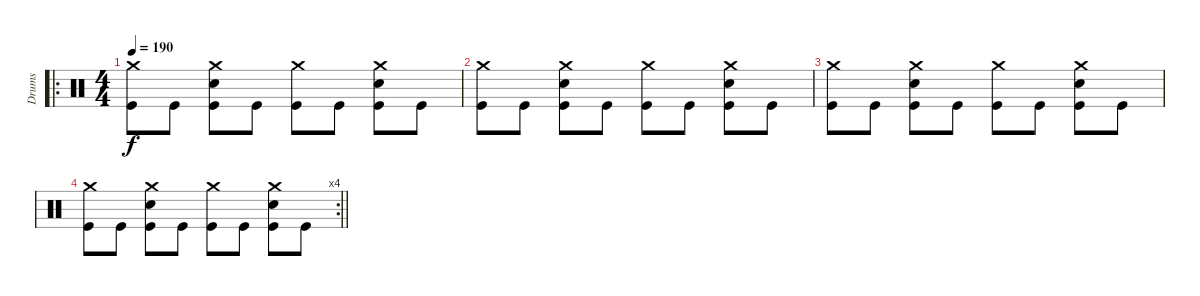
\track ("Drums" "Drums") {instrument percussion}
\staff {score}
\articulation defaults
\ro
\ts (4 4)
\tempo 190
\clef neutral
\ks c
("Crash medium (hit)" "Kick (hit)").8{dy f} "Kick (hit)".8 ("Crash medium (hit)" "Snare (hit) 2" "Kick (hit)").8 "Kick (hit)".8 ("Crash medium (hit)" "Kick (hit)").8 "Kick (hit)".8 ("Crash medium (hit)" "Snare (hit) 2" "Kick (hit)").8 "Kick (hit)".8 |
("Crash medium (hit)" "Kick (hit)").8 "Kick (hit)".8 ("Crash medium (hit)" "Snare (hit) 2" "Kick (hit)").8 "Kick (hit)".8 ("Crash medium (hit)" "Kick (hit)").8 "Kick (hit)".8 ("Crash medium (hit)" "Snare (hit) 2" "Kick (hit)").8 "Kick (hit)".8 |
("Crash medium (hit)" "Kick (hit)").8 "Kick (hit)".8 ("Crash medium (hit)" "Snare (hit) 2" "Kick (hit)").8 "Kick (hit)".8 ("Crash medium (hit)" "Kick (hit)").8 "Kick (hit)".8 ("Crash medium (hit)" "Snare (hit) 2" "Kick (hit)").8 "Kick (hit)".8 |
\rc 4
\barLineRight lightlight
("Crash medium (hit)" "Kick (hit)").8 "Kick (hit)".8 ("Crash medium (hit)" "Snare (hit) 2" "Kick (hit)").8 "Kick (hit)".8 ("Crash medium (hit)" "Kick (hit)").8 "Kick (hit)".8 ("Crash medium (hit)" "Snare (hit) 2" "Kick (hit)").8 "Kick (hit)".8
